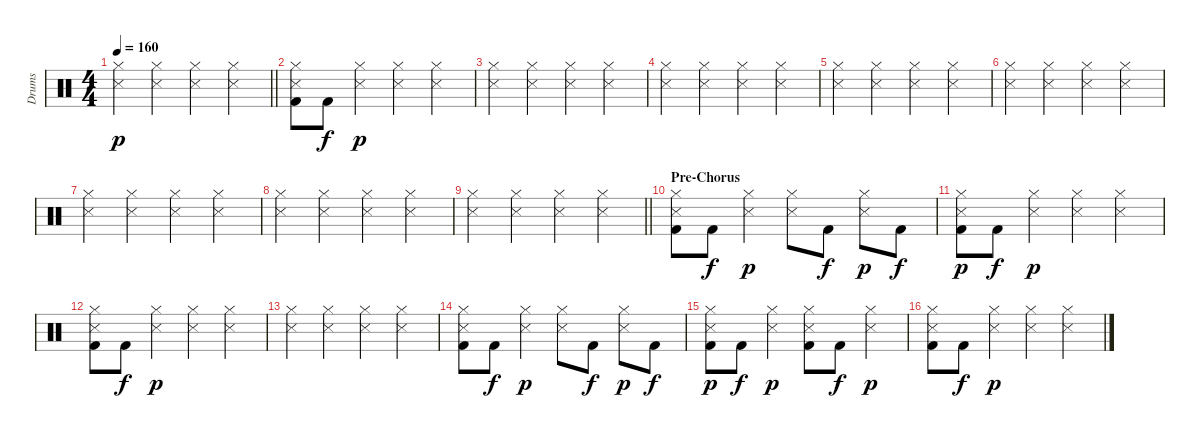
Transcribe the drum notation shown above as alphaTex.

\track ("Drums" "Drums") {instrument percussion}
\staff {score}
\articulation defaults
\ts (4 4)
\tempo 160
\clef neutral
\barLineRight lightlight
\ks c
("Hi-Hat (closed)" "Snare (side stick) 3").4{dy p} ("Hi-Hat (closed)" "Snare (side stick) 3").4 ("Hi-Hat (closed)" "Snare (side stick) 3").4 ("Hi-Hat (closed)" "Snare (side stick) 3").4 |
("Hi-Hat (closed)" "Snare (side stick) 3" "Kick (hit) 2").8 "Kick (hit) 2".8{dy f} ("Hi-Hat (closed)" "Snare (side stick) 3").4{dy p} ("Hi-Hat (closed)" "Snare (side stick) 3").4 ("Hi-Hat (closed)" "Snare (side stick) 3").4 |
("Hi-Hat (closed)" "Snare (side stick) 3").4 ("Hi-Hat (closed)" "Snare (side stick) 3").4 ("Hi-Hat (closed)" "Snare (side stick) 3").4 ("Hi-Hat (closed)" "Snare (side stick) 3").4 |
("Hi-Hat (closed)" "Snare (side stick) 3").4 ("Hi-Hat (closed)" "Snare (side stick) 3").4 ("Hi-Hat (closed)" "Snare (side stick) 3").4 ("Hi-Hat (closed)" "Snare (side stick) 3").4 |
("Hi-Hat (closed)" "Snare (side stick) 3").4 ("Hi-Hat (closed)" "Snare (side stick) 3").4 ("Hi-Hat (closed)" "Snare (side stick) 3").4 ("Hi-Hat (closed)" "Snare (side stick) 3").4 |
("Hi-Hat (closed)" "Snare (side stick) 3").4 ("Hi-Hat (closed)" "Snare (side stick) 3").4 ("Hi-Hat (closed)" "Snare (side stick) 3").4 ("Hi-Hat (closed)" "Snare (side stick) 3").4 |
("Hi-Hat (closed)" "Snare (side stick) 3").4 ("Hi-Hat (closed)" "Snare (side stick) 3").4 ("Hi-Hat (closed)" "Snare (side stick) 3").4 ("Hi-Hat (closed)" "Snare (side stick) 3").4 |
("Hi-Hat (closed)" "Snare (side stick) 3").4 ("Hi-Hat (closed)" "Snare (side stick) 3").4 ("Hi-Hat (closed)" "Snare (side stick) 3").4 ("Hi-Hat (closed)" "Snare (side stick) 3").4 |
\barLineRight lightlight
("Hi-Hat (closed)" "Snare (side stick) 3").4 ("Hi-Hat (closed)" "Snare (side stick) 3").4 ("Hi-Hat (closed)" "Snare (side stick) 3").4 ("Hi-Hat (closed)" "Snare (side stick) 3").4 |
\section ("" "Pre-Chorus")
("Hi-Hat (closed)" "Snare (side stick) 3" "Kick (hit) 2").8 "Kick (hit) 2".8{dy f} ("Hi-Hat (closed)" "Snare (side stick) 3").4{dy p} ("Hi-Hat (closed)" "Snare (side stick) 3").8 "Kick (hit) 2".8{dy f} ("Hi-Hat (closed)" "Snare (side stick) 3").8{dy p} "Kick (hit) 2".8{dy f} |
("Hi-Hat (closed)" "Snare (side stick) 3" "Kick (hit) 2").8{dy p} "Kick (hit) 2".8{dy f} ("Hi-Hat (closed)" "Snare (side stick) 3").4{dy p} ("Hi-Hat (closed)" "Snare (side stick) 3").4 ("Hi-Hat (closed)" "Snare (side stick) 3").4 |
("Hi-Hat (closed)" "Snare (side stick) 3" "Kick (hit) 2").8 "Kick (hit) 2".8{dy f} ("Hi-Hat (closed)" "Snare (side stick) 3").4{dy p} ("Hi-Hat (closed)" "Snare (side stick) 3").4 ("Hi-Hat (closed)" "Snare (side stick) 3").4 |
("Hi-Hat (closed)" "Snare (side stick) 3").4 ("Hi-Hat (closed)" "Snare (side stick) 3").4 ("Hi-Hat (closed)" "Snare (side stick) 3").4 ("Hi-Hat (closed)" "Snare (side stick) 3").4 |
("Hi-Hat (closed)" "Snare (side stick) 3" "Kick (hit) 2").8 "Kick (hit) 2".8{dy f} ("Hi-Hat (closed)" "Snare (side stick) 3").4{dy p} ("Hi-Hat (closed)" "Snare (side stick) 3").8 "Kick (hit) 2".8{dy f} ("Hi-Hat (closed)" "Snare (side stick) 3").8{dy p} "Kick (hit) 2".8{dy f} |
("Hi-Hat (closed)" "Snare (side stick) 3" "Kick (hit) 2").8{dy p} "Kick (hit) 2".8{dy f} ("Hi-Hat (closed)" "Snare (side stick) 3").4{dy p} ("Hi-Hat (closed)" "Snare (side stick) 3" "Kick (hit) 2").8 "Kick (hit) 2".8{dy f} ("Hi-Hat (closed)" "Snare (side stick) 3").4{dy p} |
("Hi-Hat (closed)" "Snare (side stick) 3" "Kick (hit) 2").8 "Kick (hit) 2".8{dy f} ("Hi-Hat (closed)" "Snare (side stick) 3").4{dy p} ("Hi-Hat (closed)" "Snare (side stick) 3").4 ("Hi-Hat (closed)" "Snare (side stick) 3").4
